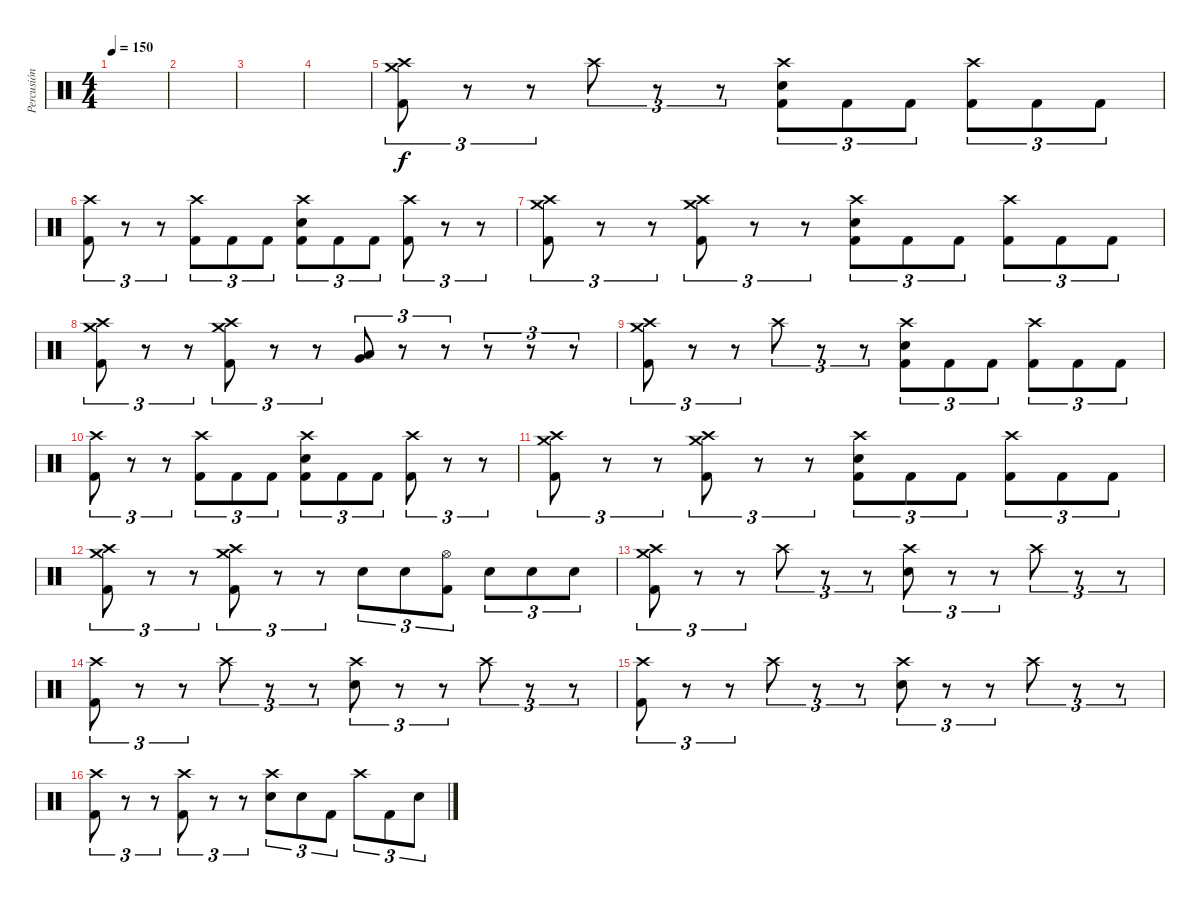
\track ("Percusión" "Percusión") {instrument percussion}
\staff {score}
\articulation defaults
\ts (4 4)
\tempo 150
\clef neutral
\ks c
|
|
|
|
("Crash medium (hit)" "Crash high (hit)" "Kick (hit) 2").8{tu (3 2)} r.8{tu (3 2)} r.8{tu (3 2)} "Crash high (hit)".8{tu (3 2)} r.8{tu (3 2)} r.8{tu (3 2)} ("Crash high (hit)" "Electric Snare (hit)" "Kick (hit) 2").8{tu (3 2)} "Kick (hit) 2".8{tu (3 2)} "Kick (hit) 2".8{tu (3 2)} ("Crash high (hit)" "Kick (hit) 2").8{tu (3 2)} "Kick (hit) 2".8{tu (3 2)} "Kick (hit) 2".8{tu (3 2)} |
("Crash high (hit)" "Kick (hit) 2").8{tu (3 2)} r.8{tu (3 2)} r.8{tu (3 2)} ("Crash high (hit)" "Kick (hit) 2").8{tu (3 2)} "Kick (hit) 2".8{tu (3 2)} "Kick (hit) 2".8{tu (3 2)} ("Crash high (hit)" "Electric Snare (hit)" "Kick (hit) 2").8{tu (3 2)} "Kick (hit) 2".8{tu (3 2)} "Kick (hit) 2".8{tu (3 2)} ("Crash high (hit)" "Kick (hit) 2").8{tu (3 2)} r.8{tu (3 2)} r.8{tu (3 2)} |
("Crash medium (hit)" "Crash high (hit)" "Kick (hit) 2").8{tu (3 2)} r.8{tu (3 2)} r.8{tu (3 2)} ("Crash medium (hit)" "Crash high (hit)" "Kick (hit) 2").8{tu (3 2)} r.8{tu (3 2)} r.8{tu (3 2)} ("Crash high (hit)" "Electric Snare (hit)" "Kick (hit) 2").8{tu (3 2)} "Kick (hit) 2".8{tu (3 2)} "Kick (hit) 2".8{tu (3 2)} ("Crash high (hit)" "Kick (hit) 2").8{tu (3 2)} "Kick (hit) 2".8{tu (3 2)} "Kick (hit) 2".8{tu (3 2)} |
("Crash medium (hit)" "Crash high (hit)" "Kick (hit) 2").8{tu (3 2)} r.8{tu (3 2)} r.8{tu (3 2)} ("Crash medium (hit)" "Crash high (hit)" "Kick (hit) 2").8{tu (3 2)} r.8{tu (3 2)} r.8{tu (3 2)} ("Very Low Tom (hit)" "Low Tom (hit)").8{tu (3 2)} r.8{tu (3 2)} r.8{tu (3 2)} r.8{tu (3 2)} r.8{tu (3 2)} r.8{tu (3 2)} |
("Crash medium (hit)" "Crash high (hit)" "Kick (hit) 2").8{tu (3 2)} r.8{tu (3 2)} r.8{tu (3 2)} "Crash high (hit)".8{tu (3 2)} r.8{tu (3 2)} r.8{tu (3 2)} ("Crash high (hit)" "Electric Snare (hit)" "Kick (hit) 2").8{tu (3 2)} "Kick (hit) 2".8{tu (3 2)} "Kick (hit) 2".8{tu (3 2)} ("Crash high (hit)" "Kick (hit) 2").8{tu (3 2)} "Kick (hit) 2".8{tu (3 2)} "Kick (hit) 2".8{tu (3 2)} |
("Crash high (hit)" "Kick (hit) 2").8{tu (3 2)} r.8{tu (3 2)} r.8{tu (3 2)} ("Crash high (hit)" "Kick (hit) 2").8{tu (3 2)} "Kick (hit) 2".8{tu (3 2)} "Kick (hit) 2".8{tu (3 2)} ("Crash high (hit)" "Electric Snare (hit)" "Kick (hit) 2").8{tu (3 2)} "Kick (hit) 2".8{tu (3 2)} "Kick (hit) 2".8{tu (3 2)} ("Crash high (hit)" "Kick (hit) 2").8{tu (3 2)} r.8{tu (3 2)} r.8{tu (3 2)} |
("Crash medium (hit)" "Crash high (hit)" "Kick (hit) 2").8{tu (3 2)} r.8{tu (3 2)} r.8{tu (3 2)} ("Crash medium (hit)" "Crash high (hit)" "Kick (hit) 2").8{tu (3 2)} r.8{tu (3 2)} r.8{tu (3 2)} ("Crash high (hit)" "Electric Snare (hit)" "Kick (hit) 2").8{tu (3 2)} "Kick (hit) 2".8{tu (3 2)} "Kick (hit) 2".8{tu (3 2)} ("Crash high (hit)" "Kick (hit) 2").8{tu (3 2)} "Kick (hit) 2".8{tu (3 2)} "Kick (hit) 2".8{tu (3 2)} |
("Crash medium (hit)" "Crash high (hit)" "Kick (hit) 2").8{tu (3 2)} r.8{tu (3 2)} r.8{tu (3 2)} ("Crash medium (hit)" "Crash high (hit)" "Kick (hit) 2").8{tu (3 2)} r.8{tu (3 2)} r.8{tu (3 2)} "Electric Snare (hit)".8{tu (3 2)} "Electric Snare (hit)".8{tu (3 2)} ("Hi-Hat (open)" "Kick (hit) 2").8{tu (3 2)} "Electric Snare (hit)".8{tu (3 2)} "Electric Snare (hit)".8{tu (3 2)} "Electric Snare (hit)".8{tu (3 2)} |
("Crash medium (hit)" "Crash high (hit)" "Kick (hit) 2").8{tu (3 2)} r.8{tu (3 2)} r.8{tu (3 2)} "Crash high (hit)".8{tu (3 2)} r.8{tu (3 2)} r.8{tu (3 2)} ("Crash high (hit)" "Electric Snare (hit)").8{tu (3 2)} r.8{tu (3 2)} r.8{tu (3 2)} "Crash high (hit)".8{tu (3 2)} r.8{tu (3 2)} r.8{tu (3 2)} |
("Crash high (hit)" "Kick (hit) 2").8{tu (3 2)} r.8{tu (3 2)} r.8{tu (3 2)} "Crash high (hit)".8{tu (3 2)} r.8{tu (3 2)} r.8{tu (3 2)} ("Crash high (hit)" "Electric Snare (hit)").8{tu (3 2)} r.8{tu (3 2)} r.8{tu (3 2)} "Crash high (hit)".8{tu (3 2)} r.8{tu (3 2)} r.8{tu (3 2)} |
("Crash high (hit)" "Kick (hit) 2").8{tu (3 2)} r.8{tu (3 2)} r.8{tu (3 2)} "Crash high (hit)".8{tu (3 2)} r.8{tu (3 2)} r.8{tu (3 2)} ("Crash high (hit)" "Electric Snare (hit)").8{tu (3 2)} r.8{tu (3 2)} r.8{tu (3 2)} "Crash high (hit)".8{tu (3 2)} r.8{tu (3 2)} r.8{tu (3 2)} |
("Crash high (hit)" "Kick (hit) 2").8{tu (3 2)} r.8{tu (3 2)} r.8{tu (3 2)} ("Crash high (hit)" "Kick (hit) 2").8{tu (3 2)} r.8{tu (3 2)} r.8{tu (3 2)} ("Crash high (hit)" "Electric Snare (hit)").8{tu (3 2)} "Electric Snare (hit)".8{tu (3 2)} "Kick (hit) 2".8{tu (3 2)} "Crash high (hit)".8{tu (3 2)} "Kick (hit) 2".8{tu (3 2)} "Electric Snare (hit)".8{tu (3 2)}
